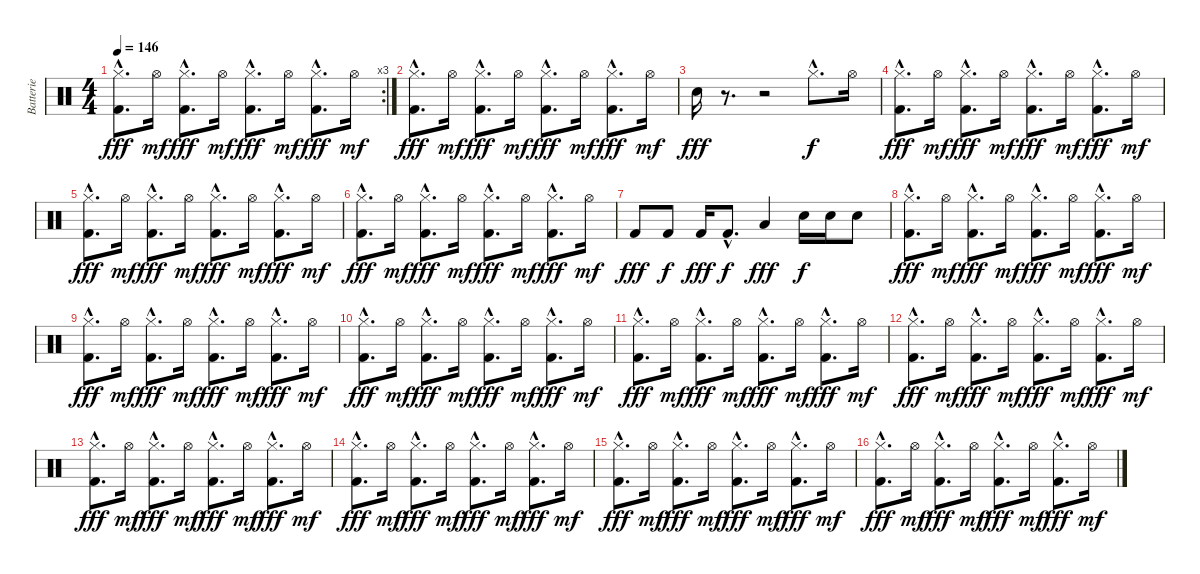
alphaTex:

\track ("Batterie" "Batterie") {instrument percussion}
\staff {score}
\articulation defaults
\rc 3
\ts (4 4)
\tempo 146
\clef neutral
\ks c
("Hi-Hat (closed)"{hac} "Kick (hit) 2"{hac}).8{d dy fff} "Hi-Hat (open)".16{dy mf} ("Hi-Hat (closed)"{hac} "Kick (hit) 2"{hac}).8{d dy fff} "Hi-Hat (open)".16{dy mf} ("Hi-Hat (closed)"{hac} "Kick (hit) 2"{hac}).8{d dy fff} "Hi-Hat (open)".16{dy mf} ("Hi-Hat (closed)"{hac} "Kick (hit) 2"{hac}).8{d dy fff} "Hi-Hat (open)".16{dy mf} |
("Hi-Hat (closed)"{hac} "Kick (hit) 2"{hac}).8{d dy fff} "Hi-Hat (open)".16{dy mf} ("Hi-Hat (closed)"{hac} "Kick (hit) 2"{hac}).8{d dy fff} "Hi-Hat (open)".16{dy mf} ("Hi-Hat (closed)"{hac} "Kick (hit) 2"{hac}).8{d dy fff} "Hi-Hat (open)".16{dy mf} ("Hi-Hat (closed)"{hac} "Kick (hit) 2"{hac}).8{d dy fff} "Hi-Hat (open)".16{dy mf} |
"Electric Snare (hit)".16{dy fff} r.8{d} r.2 "Hi-Hat (closed)"{hac}.8{d dy f} "Hi-Hat (open)".16 |
("Hi-Hat (closed)"{hac} "Kick (hit) 2"{hac}).8{d dy fff} "Hi-Hat (open)".16{dy mf} ("Hi-Hat (closed)"{hac} "Kick (hit) 2"{hac}).8{d dy fff} "Hi-Hat (open)".16{dy mf} ("Hi-Hat (closed)"{hac} "Kick (hit) 2"{hac}).8{d dy fff} "Hi-Hat (open)".16{dy mf} ("Hi-Hat (closed)"{hac} "Kick (hit) 2"{hac}).8{d dy fff} "Hi-Hat (open)".16{dy mf} |
("Hi-Hat (closed)"{hac} "Kick (hit) 2"{hac}).8{d dy fff} "Hi-Hat (open)".16{dy mf} ("Hi-Hat (closed)"{hac} "Kick (hit) 2"{hac}).8{d dy fff} "Hi-Hat (open)".16{dy mf} ("Hi-Hat (closed)"{hac} "Kick (hit) 2"{hac}).8{d dy fff} "Hi-Hat (open)".16{dy mf} ("Hi-Hat (closed)"{hac} "Kick (hit) 2"{hac}).8{d dy fff} "Hi-Hat (open)".16{dy mf} |
("Hi-Hat (closed)"{hac} "Kick (hit) 2"{hac}).8{d dy fff} "Hi-Hat (open)".16{dy mf} ("Hi-Hat (closed)"{hac} "Kick (hit) 2"{hac}).8{d dy fff} "Hi-Hat (open)".16{dy mf} ("Hi-Hat (closed)"{hac} "Kick (hit) 2"{hac}).8{d dy fff} "Hi-Hat (open)".16{dy mf} ("Hi-Hat (closed)"{hac} "Kick (hit) 2"{hac}).8{d dy fff} "Hi-Hat (open)".16{dy mf} |
"Kick (hit) 2".8{dy fff} "Kick (hit) 2".8{dy f} "Kick (hit) 2".16{dy fff} "Kick (hit) 2"{hac}.8{d dy f} "Low Tom (hit)".4{dy fff} "Snare (hit) 2".16{dy f} "Snare (hit) 2".16 "Snare (hit) 2".8 |
("Hi-Hat (closed)"{hac} "Kick (hit) 2"{hac}).8{d dy fff} "Hi-Hat (open)".16{dy mf} ("Hi-Hat (closed)"{hac} "Kick (hit) 2"{hac}).8{d dy fff} "Hi-Hat (open)".16{dy mf} ("Hi-Hat (closed)"{hac} "Kick (hit) 2"{hac}).8{d dy fff} "Hi-Hat (open)".16{dy mf} ("Hi-Hat (closed)"{hac} "Kick (hit) 2"{hac}).8{d dy fff} "Hi-Hat (open)".16{dy mf} |
("Hi-Hat (closed)"{hac} "Kick (hit) 2"{hac}).8{d dy fff} "Hi-Hat (open)".16{dy mf} ("Hi-Hat (closed)"{hac} "Kick (hit) 2"{hac}).8{d dy fff} "Hi-Hat (open)".16{dy mf} ("Hi-Hat (closed)"{hac} "Kick (hit) 2"{hac}).8{d dy fff} "Hi-Hat (open)".16{dy mf} ("Hi-Hat (closed)"{hac} "Kick (hit) 2"{hac}).8{d dy fff} "Hi-Hat (open)".16{dy mf} |
("Hi-Hat (closed)"{hac} "Kick (hit) 2"{hac}).8{d dy fff} "Hi-Hat (open)".16{dy mf} ("Hi-Hat (closed)"{hac} "Kick (hit) 2"{hac}).8{d dy fff} "Hi-Hat (open)".16{dy mf} ("Hi-Hat (closed)"{hac} "Kick (hit) 2"{hac}).8{d dy fff} "Hi-Hat (open)".16{dy mf} ("Hi-Hat (closed)"{hac} "Kick (hit) 2"{hac}).8{d dy fff} "Hi-Hat (open)".16{dy mf} |
("Hi-Hat (closed)"{hac} "Kick (hit) 2"{hac}).8{d dy fff} "Hi-Hat (open)".16{dy mf} ("Hi-Hat (closed)"{hac} "Kick (hit) 2"{hac}).8{d dy fff} "Hi-Hat (open)".16{dy mf} ("Hi-Hat (closed)"{hac} "Kick (hit) 2"{hac}).8{d dy fff} "Hi-Hat (open)".16{dy mf} ("Hi-Hat (closed)"{hac} "Kick (hit) 2"{hac}).8{d dy fff} "Hi-Hat (open)".16{dy mf} |
("Hi-Hat (closed)"{hac} "Kick (hit) 2"{hac}).8{d dy fff} "Hi-Hat (open)".16{dy mf} ("Hi-Hat (closed)"{hac} "Kick (hit) 2"{hac}).8{d dy fff} "Hi-Hat (open)".16{dy mf} ("Hi-Hat (closed)"{hac} "Kick (hit) 2"{hac}).8{d dy fff} "Hi-Hat (open)".16{dy mf} ("Hi-Hat (closed)"{hac} "Kick (hit) 2"{hac}).8{d dy fff} "Hi-Hat (open)".16{dy mf} |
("Hi-Hat (closed)"{hac} "Kick (hit) 2"{hac}).8{d dy fff} "Hi-Hat (open)".16{dy mf} ("Hi-Hat (closed)"{hac} "Kick (hit) 2"{hac}).8{d dy fff} "Hi-Hat (open)".16{dy mf} ("Hi-Hat (closed)"{hac} "Kick (hit) 2"{hac}).8{d dy fff} "Hi-Hat (open)".16{dy mf} ("Hi-Hat (closed)"{hac} "Kick (hit) 2"{hac}).8{d dy fff} "Hi-Hat (open)".16{dy mf} |
("Hi-Hat (closed)"{hac} "Kick (hit) 2"{hac}).8{d dy fff} "Hi-Hat (open)".16{dy mf} ("Hi-Hat (closed)"{hac} "Kick (hit) 2"{hac}).8{d dy fff} "Hi-Hat (open)".16{dy mf} ("Hi-Hat (closed)"{hac} "Kick (hit) 2"{hac}).8{d dy fff} "Hi-Hat (open)".16{dy mf} ("Hi-Hat (closed)"{hac} "Kick (hit) 2"{hac}).8{d dy fff} "Hi-Hat (open)".16{dy mf} |
("Hi-Hat (closed)"{hac} "Kick (hit) 2"{hac}).8{d dy fff} "Hi-Hat (open)".16{dy mf} ("Hi-Hat (closed)"{hac} "Kick (hit) 2"{hac}).8{d dy fff} "Hi-Hat (open)".16{dy mf} ("Hi-Hat (closed)"{hac} "Kick (hit) 2"{hac}).8{d dy fff} "Hi-Hat (open)".16{dy mf} ("Hi-Hat (closed)"{hac} "Kick (hit) 2"{hac}).8{d dy fff} "Hi-Hat (open)".16{dy mf} |
("Hi-Hat (closed)"{hac} "Kick (hit) 2"{hac}).8{d dy fff} "Hi-Hat (open)".16{dy mf} ("Hi-Hat (closed)"{hac} "Kick (hit) 2"{hac}).8{d dy fff} "Hi-Hat (open)".16{dy mf} ("Hi-Hat (closed)"{hac} "Kick (hit) 2"{hac}).8{d dy fff} "Hi-Hat (open)".16{dy mf} ("Hi-Hat (closed)"{hac} "Kick (hit) 2"{hac}).8{d dy fff} "Hi-Hat (open)".16{dy mf}
